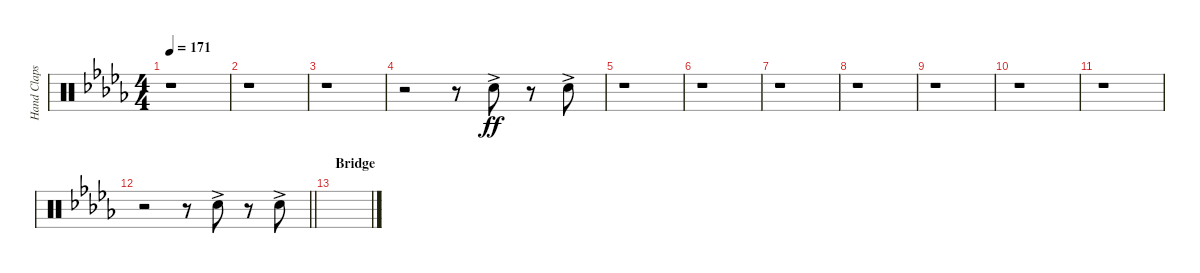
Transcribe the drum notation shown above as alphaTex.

\track ("Hand Claps" "Hand Claps") {instrument percussion}
\staff {score}
\articulation defaults
\ts (4 4)
\tempo 171
\clef neutral
\ks db
r.1{dy ff} |
r.1 |
r.1 |
r.2 r.8 "Hand Clap (hit)"{ac}.8 r.8 "Hand Clap (hit)"{ac}.8 |
r.1 |
r.1 |
r.1 |
r.1 |
r.1 |
r.1 |
r.1 |
\barLineRight lightlight
r.2 r.8 "Hand Clap (hit)"{ac}.8 r.8 "Hand Clap (hit)"{ac}.8 |
\section ("" "Bridge")
